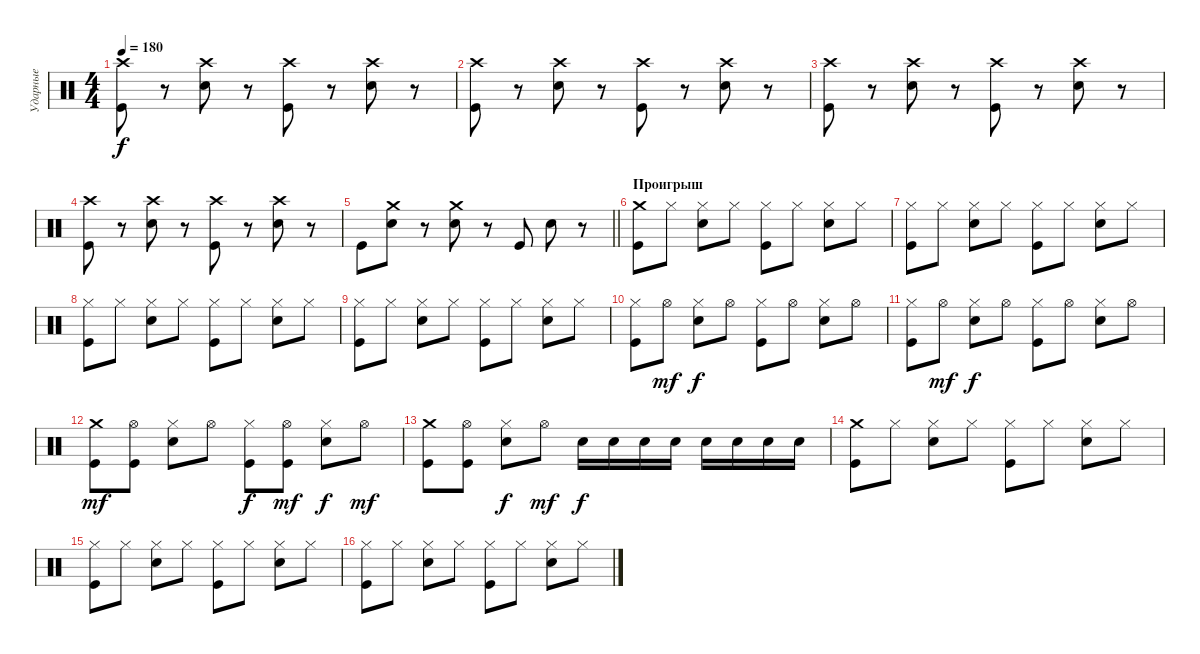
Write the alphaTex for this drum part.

\track ("Ударные" "Ударные") {instrument percussion}
\staff {score}
\articulation defaults
\ts (4 4)
\tempo 180
\clef neutral
\ks c
("Crash high (hit)" "Kick (hit)").8{dy f} r.8 ("Crash high (hit)" "Electric Snare (hit)").8 r.8 ("Crash high (hit)" "Kick (hit)").8 r.8 ("Crash high (hit)" "Electric Snare (hit)").8 r.8 |
("Crash high (hit)" "Kick (hit)").8 r.8 ("Crash high (hit)" "Electric Snare (hit)").8 r.8 ("Crash high (hit)" "Kick (hit)").8 r.8 ("Crash high (hit)" "Electric Snare (hit)").8 r.8 |
("Crash high (hit)" "Kick (hit)").8 r.8 ("Crash high (hit)" "Electric Snare (hit)").8 r.8 ("Crash high (hit)" "Kick (hit)").8 r.8 ("Crash high (hit)" "Electric Snare (hit)").8 r.8 |
("Crash high (hit)" "Kick (hit)").8 r.8 ("Crash high (hit)" "Electric Snare (hit)").8 r.8 ("Crash high (hit)" "Kick (hit)").8 r.8 ("Crash high (hit)" "Electric Snare (hit)").8 r.8 |
\barLineRight lightlight "Kick (hit)".8
("Crash medium (hit)" "Electric Snare (hit)").8 r.8 ("Crash medium (hit)" "Electric Snare (hit)").8 r.8 "Kick (hit)".8 "Electric Snare (hit)".8 r.8 |
\section ("" "Проигрыш")
("Crash medium (hit)" "Kick (hit)").8 "Hi-Hat (closed)".8 ("Hi-Hat (closed)" "Electric Snare (hit)").8 "Hi-Hat (closed)".8 ("Hi-Hat (closed)" "Kick (hit)").8 "Hi-Hat (closed)".8 ("Hi-Hat (closed)" "Electric Snare (hit)").8 "Hi-Hat (closed)".8 |
("Hi-Hat (closed)" "Kick (hit)").8 "Hi-Hat (closed)".8 ("Hi-Hat (closed)" "Electric Snare (hit)").8 "Hi-Hat (closed)".8 ("Hi-Hat (closed)" "Kick (hit)").8 "Hi-Hat (closed)".8 ("Hi-Hat (closed)" "Electric Snare (hit)").8 "Hi-Hat (closed)".8 |
("Hi-Hat (closed)" "Kick (hit)").8 "Hi-Hat (closed)".8 ("Hi-Hat (closed)" "Electric Snare (hit)").8 "Hi-Hat (closed)".8 ("Hi-Hat (closed)" "Kick (hit)").8 "Hi-Hat (closed)".8 ("Hi-Hat (closed)" "Electric Snare (hit)").8 "Hi-Hat (closed)".8 |
("Hi-Hat (closed)" "Kick (hit)").8 "Hi-Hat (closed)".8 ("Hi-Hat (closed)" "Electric Snare (hit)").8 "Hi-Hat (closed)".8 ("Hi-Hat (closed)" "Kick (hit)").8 "Hi-Hat (closed)".8 ("Hi-Hat (closed)" "Electric Snare (hit)").8 "Hi-Hat (closed)".8 |
("Hi-Hat (closed)" "Kick (hit)").8 "Hi-Hat (open)".8{dy mf} ("Hi-Hat (closed)" "Electric Snare (hit)").8{dy f} "Hi-Hat (open)".8 ("Hi-Hat (closed)" "Kick (hit)").8 "Hi-Hat (open)".8 ("Hi-Hat (closed)" "Electric Snare (hit)").8 "Hi-Hat (open)".8 |
("Hi-Hat (closed)" "Kick (hit)").8 "Hi-Hat (open)".8{dy mf} ("Hi-Hat (closed)" "Electric Snare (hit)").8{dy f} "Hi-Hat (open)".8 ("Hi-Hat (closed)" "Kick (hit)").8 "Hi-Hat (open)".8 ("Hi-Hat (closed)" "Electric Snare (hit)").8 "Hi-Hat (open)".8 |
("Crash medium (hit)" "Kick (hit)").8{dy mf} ("Hi-Hat (open)" "Kick (hit)").8 ("Hi-Hat (closed)" "Electric Snare (hit)").8 "Hi-Hat (open)".8 ("Hi-Hat (closed)" "Kick (hit)").8{dy f} ("Hi-Hat (open)" "Kick (hit)").8{dy mf} ("Hi-Hat (closed)" "Electric Snare (hit)").8{dy f} "Hi-Hat (open)".8{dy mf} |
("Crash medium (hit)" "Kick (hit)").8 ("Hi-Hat (open)" "Kick (hit)").8 ("Hi-Hat (closed)" "Electric Snare (hit)").8{dy f} "Hi-Hat (open)".8{dy mf} "Electric Snare (hit)".16{dy f} "Electric Snare (hit)".16 "Electric Snare (hit)".16 "Electric Snare (hit)".16 "Electric Snare (hit)".16 "Electric Snare (hit)".16 "Electric Snare (hit)".16 "Electric Snare (hit)".16 |
("Crash medium (hit)" "Kick (hit)").8 "Hi-Hat (closed)".8 ("Hi-Hat (closed)" "Electric Snare (hit)").8 "Hi-Hat (closed)".8 ("Hi-Hat (closed)" "Kick (hit)").8 "Hi-Hat (closed)".8 ("Hi-Hat (closed)" "Electric Snare (hit)").8 "Hi-Hat (closed)".8 |
("Hi-Hat (closed)" "Kick (hit)").8 "Hi-Hat (closed)".8 ("Hi-Hat (closed)" "Electric Snare (hit)").8 "Hi-Hat (closed)".8 ("Hi-Hat (closed)" "Kick (hit)").8 "Hi-Hat (closed)".8 ("Hi-Hat (closed)" "Electric Snare (hit)").8 "Hi-Hat (closed)".8 |
("Hi-Hat (closed)" "Kick (hit)").8 "Hi-Hat (closed)".8 ("Hi-Hat (closed)" "Electric Snare (hit)").8 "Hi-Hat (closed)".8 ("Hi-Hat (closed)" "Kick (hit)").8 "Hi-Hat (closed)".8 ("Hi-Hat (closed)" "Electric Snare (hit)").8 "Hi-Hat (closed)".8
